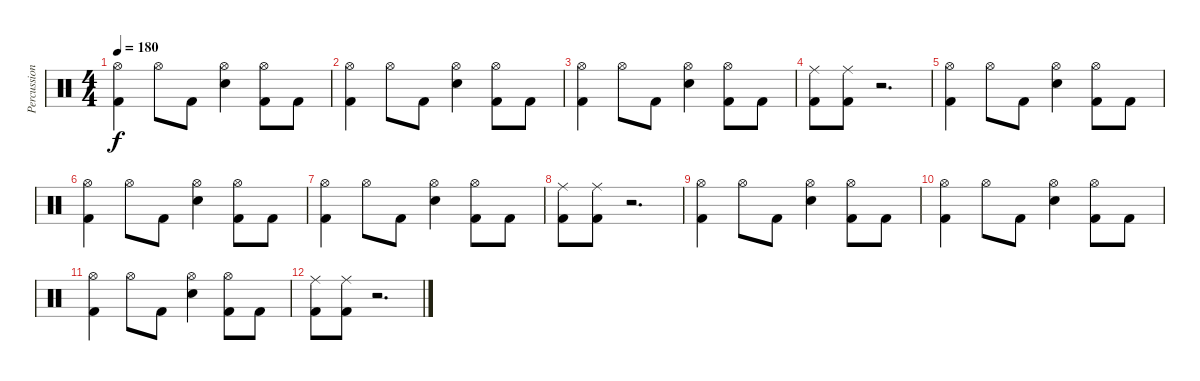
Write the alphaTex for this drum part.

\track ("Percussion" "Percussion") {instrument percussion}
\staff {score}
\articulation defaults
\ts (4 4)
\tempo 180
\clef neutral
\ks c
("Hi-Hat (open)" "Kick (hit) 2").4{dy f} "Hi-Hat (open)".8 "Kick (hit) 2".8 ("Hi-Hat (open)" "Electric Snare (hit)").4 ("Hi-Hat (open)" "Kick (hit) 2").8 "Kick (hit) 2".8 |
("Hi-Hat (open)" "Kick (hit) 2").4 "Hi-Hat (open)".8 "Kick (hit) 2".8 ("Hi-Hat (open)" "Electric Snare (hit)").4 ("Hi-Hat (open)" "Kick (hit) 2").8 "Kick (hit) 2".8 |
("Hi-Hat (open)" "Kick (hit) 2").4 "Hi-Hat (open)".8 "Kick (hit) 2".8 ("Hi-Hat (open)" "Electric Snare (hit)").4 ("Hi-Hat (open)" "Kick (hit) 2").8 "Kick (hit) 2".8 |
("Ride (middle)" "Kick (hit) 2").8 ("Ride (middle)" "Kick (hit) 2").8 r.2{d} |
("Hi-Hat (open)" "Kick (hit) 2").4 "Hi-Hat (open)".8 "Kick (hit) 2".8 ("Hi-Hat (open)" "Electric Snare (hit)").4 ("Hi-Hat (open)" "Kick (hit) 2").8 "Kick (hit) 2".8 |
("Hi-Hat (open)" "Kick (hit) 2").4 "Hi-Hat (open)".8 "Kick (hit) 2".8 ("Hi-Hat (open)" "Electric Snare (hit)").4 ("Hi-Hat (open)" "Kick (hit) 2").8 "Kick (hit) 2".8 |
("Hi-Hat (open)" "Kick (hit) 2").4 "Hi-Hat (open)".8 "Kick (hit) 2".8 ("Hi-Hat (open)" "Electric Snare (hit)").4 ("Hi-Hat (open)" "Kick (hit) 2").8 "Kick (hit) 2".8 |
("Ride (middle)" "Kick (hit) 2").8 ("Ride (middle)" "Kick (hit) 2").8 r.2{d} |
("Hi-Hat (open)" "Kick (hit) 2").4 "Hi-Hat (open)".8 "Kick (hit) 2".8 ("Hi-Hat (open)" "Electric Snare (hit)").4 ("Hi-Hat (open)" "Kick (hit) 2").8 "Kick (hit) 2".8 |
("Hi-Hat (open)" "Kick (hit) 2").4 "Hi-Hat (open)".8 "Kick (hit) 2".8 ("Hi-Hat (open)" "Electric Snare (hit)").4 ("Hi-Hat (open)" "Kick (hit) 2").8 "Kick (hit) 2".8 |
("Hi-Hat (open)" "Kick (hit) 2").4 "Hi-Hat (open)".8 "Kick (hit) 2".8 ("Hi-Hat (open)" "Electric Snare (hit)").4 ("Hi-Hat (open)" "Kick (hit) 2").8 "Kick (hit) 2".8 |
("Ride (middle)" "Kick (hit) 2").8 ("Ride (middle)" "Kick (hit) 2").8 r.2{d}
